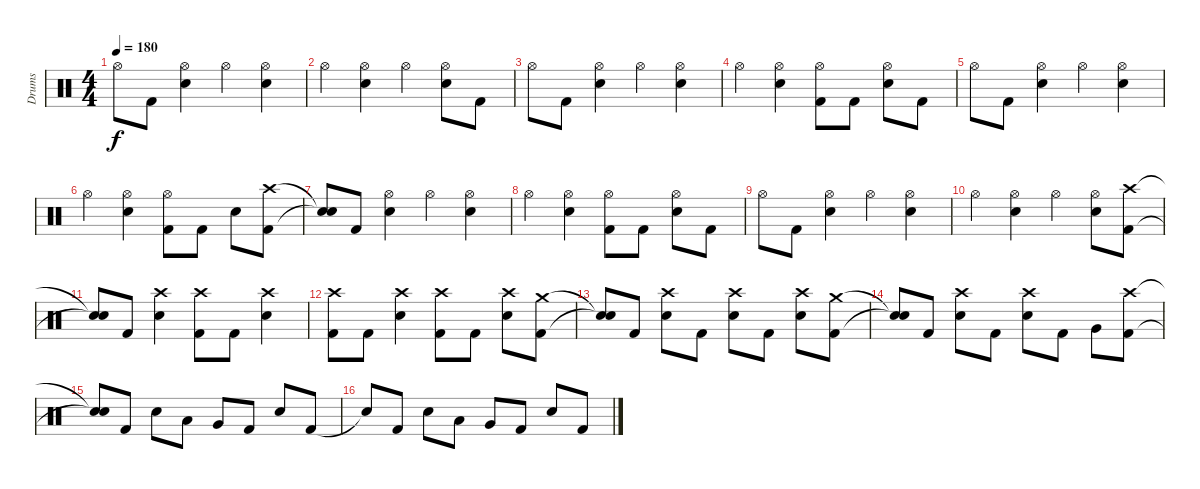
\track ("Drums" "Drums") {instrument percussion}
\staff {score}
\articulation defaults
\ts (4 4)
\tempo 180
\clef neutral
\ks c "Hi-Hat (open)".8{dy f} "Kick (hit) 2".8
("Hi-Hat (open)" "Electric Snare (hit)").4 "Hi-Hat (open)".4 ("Hi-Hat (open)" "Electric Snare (hit)").4 |
"Hi-Hat (open)".4 ("Hi-Hat (open)" "Electric Snare (hit)").4 "Hi-Hat (open)".4 ("Hi-Hat (open)" "Electric Snare (hit)").8 "Kick (hit) 2".8 |
"Hi-Hat (open)".8 "Kick (hit) 2".8 ("Hi-Hat (open)" "Electric Snare (hit)").4 "Hi-Hat (open)".4 ("Hi-Hat (open)" "Electric Snare (hit)").4 |
"Hi-Hat (open)".4 ("Hi-Hat (open)" "Electric Snare (hit)").4 ("Hi-Hat (open)" "Kick (hit) 2").8 "Kick (hit) 2".8 ("Hi-Hat (open)" "Electric Snare (hit)").8 "Kick (hit) 2".8 |
"Hi-Hat (open)".8 "Kick (hit) 2".8 ("Hi-Hat (open)" "Electric Snare (hit)").4 "Hi-Hat (open)".4 ("Hi-Hat (open)" "Electric Snare (hit)").4 |
"Hi-Hat (open)".4 ("Hi-Hat (open)" "Electric Snare (hit)").4 ("Hi-Hat (open)" "Kick (hit) 2").8 "Kick (hit) 2".8 "Electric Snare (hit)".8 ("Crash high (hit)" "Kick (hit) 2").8 |
("Snare (hit)"{t} "Snare (hit)"{t}).8 "Kick (hit) 2".8 ("Hi-Hat (open)" "Electric Snare (hit)").4 "Hi-Hat (open)".4 ("Hi-Hat (open)" "Electric Snare (hit)").4 |
"Hi-Hat (open)".4 ("Hi-Hat (open)" "Electric Snare (hit)").4 ("Hi-Hat (open)" "Kick (hit) 2").8 "Kick (hit) 2".8 ("Hi-Hat (open)" "Electric Snare (hit)").8 "Kick (hit) 2".8 |
"Hi-Hat (open)".8 "Kick (hit) 2".8 ("Hi-Hat (open)" "Electric Snare (hit)").4 "Hi-Hat (open)".4 ("Hi-Hat (open)" "Electric Snare (hit)").4 |
"Hi-Hat (open)".4 ("Hi-Hat (open)" "Electric Snare (hit)").4 "Hi-Hat (open)".4 ("Hi-Hat (open)" "Electric Snare (hit)").8 ("Crash high (hit)" "Kick (hit) 2").8 |
("Snare (hit)"{t} "Snare (hit)"{t}).8 "Kick (hit) 2".8 ("Crash high (hit)" "Electric Snare (hit)").4 ("Crash high (hit)" "Kick (hit) 2").8 "Kick (hit) 2".8 ("Crash high (hit)" "Electric Snare (hit)").4 |
("Crash high (hit)" "Kick (hit) 2").8 "Kick (hit) 2".8 ("Crash high (hit)" "Electric Snare (hit)").4 ("Crash high (hit)" "Kick (hit) 2").8 "Kick (hit) 2".8 ("Crash high (hit)" "Electric Snare (hit)").8 ("Crash medium (hit)" "Kick (hit) 2").8 |
("Snare (hit)"{t} "Snare (hit)"{t}).8 "Kick (hit) 2".8 ("Crash high (hit)" "Electric Snare (hit)").8 "Kick (hit) 2".8 ("Crash high (hit)" "Electric Snare (hit)").8 "Kick (hit) 2".8 ("Crash high (hit)" "Electric Snare (hit)").8 ("Crash medium (hit)" "Kick (hit) 2").8 |
("Snare (hit)"{t} "Snare (hit)"{t}).8 "Kick (hit) 2".8 ("Crash high (hit)" "Electric Snare (hit)").8 "Kick (hit) 2".8 ("Crash high (hit)" "Electric Snare (hit)").8 "Kick (hit) 2".8 "Very Low Tom (hit)".8 ("Crash high (hit)" "Kick (hit) 2").8 |
("Snare (hit)"{t} "Snare (hit)"{t}).8 "Kick (hit) 2".8 "Electric Snare (hit)".8 "Low Tom (hit)".8 "Very Low Tom (hit)".8 "Kick (hit) 2".8 "Electric Snare (hit)".8 "Kick (hit) 2".8 |
"Snare (hit)"{t}.8 "Kick (hit) 2".8 "Electric Snare (hit)".8 "Low Tom (hit)".8 "Very Low Tom (hit)".8 "Kick (hit) 2".8 "Electric Snare (hit)".8 "Kick (hit) 2".8
